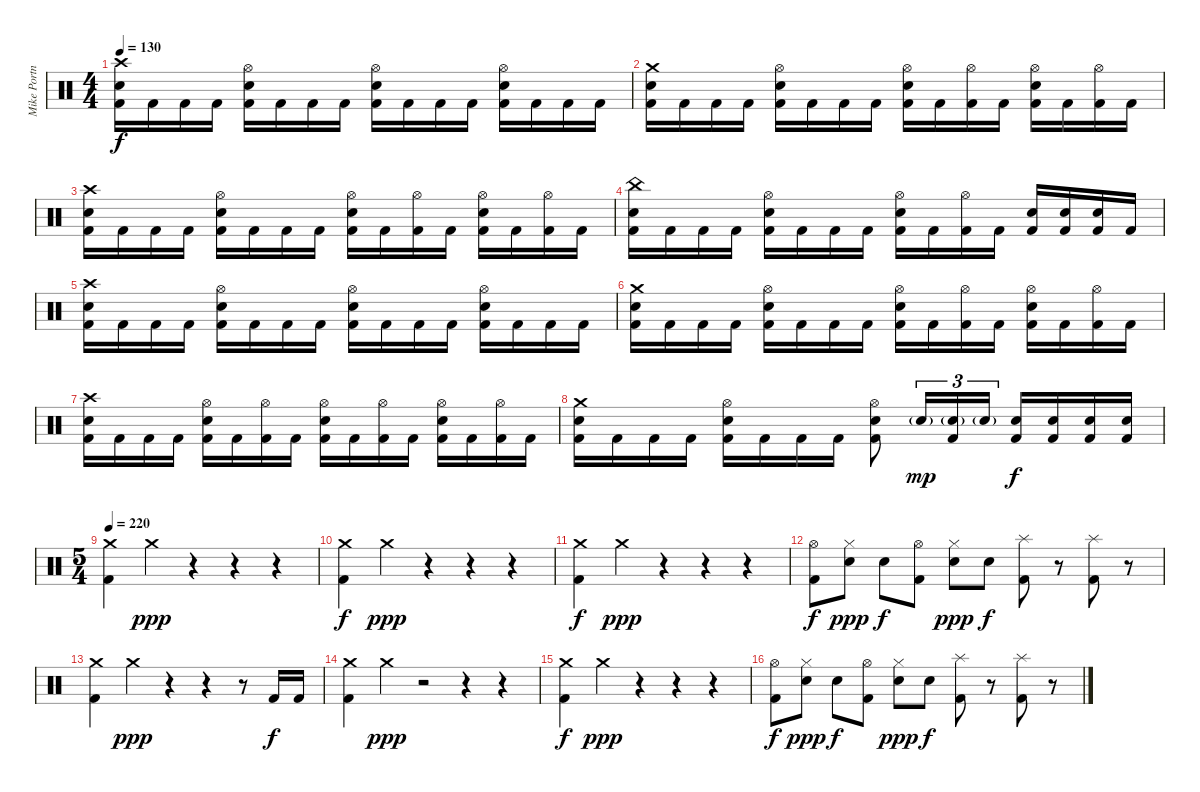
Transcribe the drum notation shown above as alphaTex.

\track ("Mike Portnoy" "Mike Portn") {instrument percussion}
\staff {score}
\articulation defaults
\ts (4 4)
\tempo 130
\clef neutral
\ks c
("Crash high (hit)" "Electric Snare (hit)" "Kick (hit) 2").16{dy f} "Kick (hit) 2".16 "Kick (hit) 2".16 "Kick (hit) 2".16 ("Hi-Hat (open)" "Electric Snare (hit)" "Kick (hit) 2").16 "Kick (hit) 2".16 "Kick (hit) 2".16 "Kick (hit) 2".16 ("Hi-Hat (open)" "Electric Snare (hit)" "Kick (hit) 2").16 "Kick (hit) 2".16 "Kick (hit) 2".16 "Kick (hit) 2".16 ("Hi-Hat (open)" "Electric Snare (hit)" "Kick (hit) 2").16 "Kick (hit) 2".16 "Kick (hit) 2".16 "Kick (hit) 2".16 |
("Crash medium (hit)" "Electric Snare (hit)" "Kick (hit) 2").16 "Kick (hit) 2".16 "Kick (hit) 2".16 "Kick (hit) 2".16 ("Hi-Hat (open)" "Electric Snare (hit)" "Kick (hit) 2").16 "Kick (hit) 2".16 "Kick (hit) 2".16 "Kick (hit) 2".16 ("Hi-Hat (open)" "Electric Snare (hit)" "Kick (hit) 2").16 "Kick (hit) 2".16 ("Hi-Hat (open)" "Kick (hit) 2").16 "Kick (hit) 2".16 ("Hi-Hat (open)" "Electric Snare (hit)" "Kick (hit) 2").16 "Kick (hit) 2".16 ("Hi-Hat (open)" "Kick (hit) 2").16 "Kick (hit) 2".16 |
("Crash high (hit)" "Electric Snare (hit)" "Kick (hit) 2").16 "Kick (hit) 2".16 "Kick (hit) 2".16 "Kick (hit) 2".16 ("Hi-Hat (open)" "Electric Snare (hit)" "Kick (hit) 2").16 "Kick (hit) 2".16 "Kick (hit) 2".16 "Kick (hit) 2".16 ("Hi-Hat (open)" "Electric Snare (hit)" "Kick (hit) 2").16 "Kick (hit) 2".16 ("Hi-Hat (open)" "Kick (hit) 2").16 "Kick (hit) 2".16 ("Hi-Hat (open)" "Electric Snare (hit)" "Kick (hit) 2").16 "Kick (hit) 2".16 ("Hi-Hat (open)" "Kick (hit) 2").16 "Kick (hit) 2".16 |
("China (hit)" "Electric Snare (hit)" "Kick (hit) 2").16 "Kick (hit) 2".16 "Kick (hit) 2".16 "Kick (hit) 2".16 ("Hi-Hat (open)" "Electric Snare (hit)" "Kick (hit) 2").16 "Kick (hit) 2".16 "Kick (hit) 2".16 "Kick (hit) 2".16 ("Hi-Hat (open)" "Electric Snare (hit)" "Kick (hit) 2").16 "Kick (hit) 2".16 ("Hi-Hat (open)" "Kick (hit) 2").16 "Kick (hit) 2".16 ("Electric Snare (hit)" "Kick (hit) 2").16 ("Electric Snare (hit)" "Kick (hit) 2").16 ("Electric Snare (hit)" "Kick (hit) 2").16 "Kick (hit) 2".16 |
("Crash high (hit)" "Electric Snare (hit)" "Kick (hit) 2").16 "Kick (hit) 2".16 "Kick (hit) 2".16 "Kick (hit) 2".16 ("Hi-Hat (open)" "Electric Snare (hit)" "Kick (hit) 2").16 "Kick (hit) 2".16 "Kick (hit) 2".16 "Kick (hit) 2".16 ("Hi-Hat (open)" "Electric Snare (hit)" "Kick (hit) 2").16 "Kick (hit) 2".16 "Kick (hit) 2".16 "Kick (hit) 2".16 ("Hi-Hat (open)" "Electric Snare (hit)" "Kick (hit) 2").16 "Kick (hit) 2".16 "Kick (hit) 2".16 "Kick (hit) 2".16 |
("Crash medium (hit)" "Electric Snare (hit)" "Kick (hit) 2").16 "Kick (hit) 2".16 "Kick (hit) 2".16 "Kick (hit) 2".16 ("Hi-Hat (open)" "Electric Snare (hit)" "Kick (hit) 2").16 "Kick (hit) 2".16 "Kick (hit) 2".16 "Kick (hit) 2".16 ("Hi-Hat (open)" "Electric Snare (hit)" "Kick (hit) 2").16 "Kick (hit) 2".16 ("Hi-Hat (open)" "Kick (hit) 2").16 "Kick (hit) 2".16 ("Hi-Hat (open)" "Electric Snare (hit)" "Kick (hit) 2").16 "Kick (hit) 2".16 ("Hi-Hat (open)" "Kick (hit) 2").16 "Kick (hit) 2".16 |
("Crash high (hit)" "Electric Snare (hit)" "Kick (hit) 2").16 "Kick (hit) 2".16 "Kick (hit) 2".16 "Kick (hit) 2".16 ("Hi-Hat (open)" "Electric Snare (hit)" "Kick (hit) 2").16 "Kick (hit) 2".16 ("Hi-Hat (open)" "Kick (hit) 2").16 "Kick (hit) 2".16 ("Hi-Hat (open)" "Electric Snare (hit)" "Kick (hit) 2").16 "Kick (hit) 2".16 ("Hi-Hat (open)" "Kick (hit) 2").16 "Kick (hit) 2".16 ("Hi-Hat (open)" "Electric Snare (hit)" "Kick (hit) 2").16 "Kick (hit) 2".16 ("Hi-Hat (open)" "Kick (hit) 2").16 "Kick (hit) 2".16 |
("Crash medium (hit)" "Electric Snare (hit)" "Kick (hit) 2").16 "Kick (hit) 2".16 "Kick (hit) 2".16 "Kick (hit) 2".16 ("Hi-Hat (open)" "Electric Snare (hit)" "Kick (hit) 2").16 "Kick (hit) 2".16 "Kick (hit) 2".16 "Kick (hit) 2".16 ("Hi-Hat (open)" "Electric Snare (hit)" "Kick (hit) 2").8 "Electric Snare (hit)"{g}.16{tu (3 2) dy mp} ("Electric Snare (hit)"{g} "Kick (hit) 2").16{tu (3 2)} "Electric Snare (hit)"{g}.16{tu (3 2)} ("Electric Snare (hit)" "Kick (hit) 2").16{dy f} ("Electric Snare (hit)" "Kick (hit) 2").16 ("Electric Snare (hit)" "Kick (hit) 2").16 ("Electric Snare (hit)" "Kick (hit) 2").16 |
\ts (5 4)
\tempo 220
("Crash medium (hit)" "Kick (hit) 2").4 "Crash medium (hit)".4{dy ppp} r.4 r.4 r.4 |
("Crash medium (hit)" "Kick (hit) 2").4{dy f} "Crash medium (hit)".4{dy ppp} r.4 r.4 r.4 |
("Crash medium (hit)" "Kick (hit) 2").4{dy f} "Crash medium (hit)".4{dy ppp} r.4 r.4 r.4 |
("Hi-Hat (open)" "Kick (hit) 2").8{dy f} ("Hi-Hat (closed)" "Electric Snare (hit)").8{dy ppp} "Electric Snare (hit)".8{dy f} ("Hi-Hat (open)" "Kick (hit) 2").8 ("Hi-Hat (closed)" "Electric Snare (hit)").8{dy ppp} "Electric Snare (hit)".8{dy f} ("Splash (hit)" "Kick (hit) 2").8 r.8 ("Splash (hit)" "Kick (hit) 2").8 r.8 |
("Crash medium (hit)" "Kick (hit) 2").4 "Crash medium (hit)".4{dy ppp} r.4 r.4 r.8 "Kick (hit) 2".16{dy f} "Kick (hit) 2".16 |
("Crash medium (hit)" "Kick (hit) 2").4 "Crash medium (hit)".4{dy ppp} r.2 r.4 r.4 |
("Crash medium (hit)" "Kick (hit) 2").4{dy f} "Crash medium (hit)".4{dy ppp} r.4 r.4 r.4 |
("Hi-Hat (open)" "Kick (hit) 2").8{dy f} ("Hi-Hat (closed)" "Electric Snare (hit)").8{dy ppp} "Electric Snare (hit)".8{dy f} ("Hi-Hat (open)" "Kick (hit) 2").8 ("Hi-Hat (closed)" "Electric Snare (hit)").8{dy ppp} "Electric Snare (hit)".8{dy f} ("Splash (hit)" "Kick (hit) 2").8 r.8 ("Splash (hit)" "Kick (hit) 2").8 r.8
